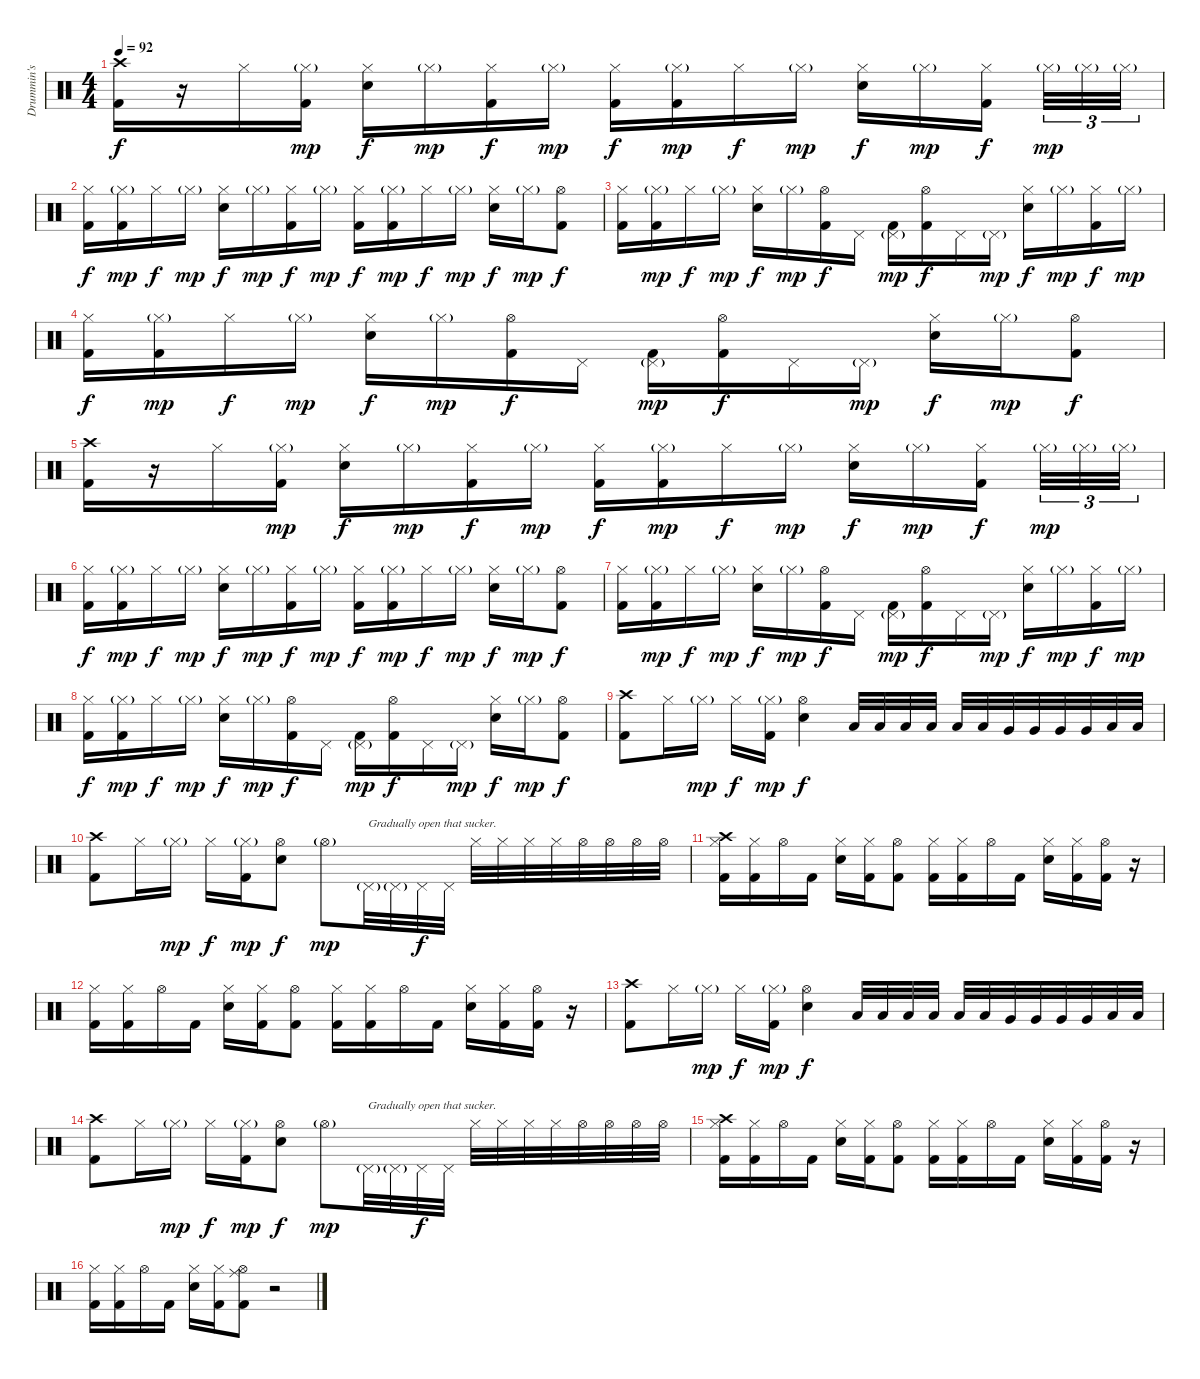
\track ("Drummin's" "Drummin's") {instrument percussion}
\staff {score}
\articulation defaults
\ts (4 4)
\tempo 92
\clef neutral
\ks c
("Crash high (hit)" "Kick (hit) 2").16{dy f} r.16 "Hi-Hat (closed)".16 ("Hi-Hat (closed)"{g} "Kick (hit) 2").16{dy mp} ("Hi-Hat (closed)" "Snare (hit) 2").16{dy f} "Hi-Hat (closed)"{g}.16{dy mp} ("Hi-Hat (closed)" "Kick (hit) 2").16{dy f} "Hi-Hat (closed)"{g}.16{dy mp} ("Hi-Hat (closed)" "Kick (hit) 2").16{dy f} ("Hi-Hat (closed)"{g} "Kick (hit) 2").16{dy mp} "Hi-Hat (closed)".16{dy f} "Hi-Hat (closed)"{g}.16{dy mp} ("Hi-Hat (closed)" "Snare (hit) 2").16{dy f} "Hi-Hat (closed)"{g}.16{dy mp} ("Hi-Hat (closed)" "Kick (hit) 2").16{dy f} "Hi-Hat (closed)"{g}.32{tu (3 2) dy mp} "Hi-Hat (closed)"{g}.32{tu (3 2)} "Hi-Hat (closed)"{g}.32{tu (3 2)} |
("Hi-Hat (closed)" "Kick (hit) 2").16{dy f} ("Hi-Hat (closed)"{g} "Kick (hit) 2").16{dy mp} "Hi-Hat (closed)".16{dy f} "Hi-Hat (closed)"{g}.16{dy mp} ("Hi-Hat (closed)" "Snare (hit) 2").16{dy f} "Hi-Hat (closed)"{g}.16{dy mp} ("Hi-Hat (closed)" "Kick (hit) 2").16{dy f} "Hi-Hat (closed)"{g}.16{dy mp} ("Hi-Hat (closed)" "Kick (hit) 2").16{dy f} ("Hi-Hat (closed)"{g} "Kick (hit) 2").16{dy mp} "Hi-Hat (closed)".16{dy f} "Hi-Hat (closed)"{g}.16{dy mp} ("Hi-Hat (closed)" "Snare (hit) 2").16{dy f} "Hi-Hat (closed)"{g}.16{dy mp} ("Hi-Hat (open)" "Kick (hit) 2").8{dy f} |
("Hi-Hat (closed)" "Kick (hit) 2").16 ("Hi-Hat (closed)"{g} "Kick (hit) 2").16{dy mp} "Hi-Hat (closed)".16{dy f} "Hi-Hat (closed)"{g}.16{dy mp} ("Hi-Hat (closed)" "Snare (hit) 2").16{dy f} "Hi-Hat (closed)"{g}.16{dy mp} ("Hi-Hat (open)" "Kick (hit) 2").16{dy f} "Pedal Hi-Hat (hit)".16 ("Pedal Hi-Hat (hit)"{g} "Kick (hit) 2").16{dy mp} ("Hi-Hat (open)" "Kick (hit) 2").16{dy f} "Pedal Hi-Hat (hit)".16 "Pedal Hi-Hat (hit)"{g}.16{dy mp} ("Hi-Hat (closed)" "Snare (hit) 2").16{dy f} "Hi-Hat (closed)"{g}.16{dy mp} ("Hi-Hat (closed)" "Kick (hit) 2").16{dy f} "Hi-Hat (closed)"{g}.16{dy mp} |
("Hi-Hat (closed)" "Kick (hit) 2").16{dy f} ("Hi-Hat (closed)"{g} "Kick (hit) 2").16{dy mp} "Hi-Hat (closed)".16{dy f} "Hi-Hat (closed)"{g}.16{dy mp} ("Hi-Hat (closed)" "Snare (hit) 2").16{dy f} "Hi-Hat (closed)"{g}.16{dy mp} ("Hi-Hat (open)" "Kick (hit) 2").16{dy f} "Pedal Hi-Hat (hit)".16 ("Pedal Hi-Hat (hit)"{g} "Kick (hit) 2").16{dy mp} ("Hi-Hat (open)" "Kick (hit) 2").16{dy f} "Pedal Hi-Hat (hit)".16 "Pedal Hi-Hat (hit)"{g}.16{dy mp} ("Hi-Hat (closed)" "Snare (hit) 2").16{dy f} "Hi-Hat (closed)"{g}.16{dy mp} ("Hi-Hat (open)" "Kick (hit) 2").8{dy f} |
("Crash high (hit)" "Kick (hit) 2").16 r.16 "Hi-Hat (closed)".16 ("Hi-Hat (closed)"{g} "Kick (hit) 2").16{dy mp} ("Hi-Hat (closed)" "Snare (hit) 2").16{dy f} "Hi-Hat (closed)"{g}.16{dy mp} ("Hi-Hat (closed)" "Kick (hit) 2").16{dy f} "Hi-Hat (closed)"{g}.16{dy mp} ("Hi-Hat (closed)" "Kick (hit) 2").16{dy f} ("Hi-Hat (closed)"{g} "Kick (hit) 2").16{dy mp} "Hi-Hat (closed)".16{dy f} "Hi-Hat (closed)"{g}.16{dy mp} ("Hi-Hat (closed)" "Snare (hit) 2").16{dy f} "Hi-Hat (closed)"{g}.16{dy mp} ("Hi-Hat (closed)" "Kick (hit) 2").16{dy f} "Hi-Hat (closed)"{g}.32{tu (3 2) dy mp} "Hi-Hat (closed)"{g}.32{tu (3 2)} "Hi-Hat (closed)"{g}.32{tu (3 2)} |
("Hi-Hat (closed)" "Kick (hit) 2").16{dy f} ("Hi-Hat (closed)"{g} "Kick (hit) 2").16{dy mp} "Hi-Hat (closed)".16{dy f} "Hi-Hat (closed)"{g}.16{dy mp} ("Hi-Hat (closed)" "Snare (hit) 2").16{dy f} "Hi-Hat (closed)"{g}.16{dy mp} ("Hi-Hat (closed)" "Kick (hit) 2").16{dy f} "Hi-Hat (closed)"{g}.16{dy mp} ("Hi-Hat (closed)" "Kick (hit) 2").16{dy f} ("Hi-Hat (closed)"{g} "Kick (hit) 2").16{dy mp} "Hi-Hat (closed)".16{dy f} "Hi-Hat (closed)"{g}.16{dy mp} ("Hi-Hat (closed)" "Snare (hit) 2").16{dy f} "Hi-Hat (closed)"{g}.16{dy mp} ("Hi-Hat (open)" "Kick (hit) 2").8{dy f} |
("Hi-Hat (closed)" "Kick (hit) 2").16 ("Hi-Hat (closed)"{g} "Kick (hit) 2").16{dy mp} "Hi-Hat (closed)".16{dy f} "Hi-Hat (closed)"{g}.16{dy mp} ("Hi-Hat (closed)" "Snare (hit) 2").16{dy f} "Hi-Hat (closed)"{g}.16{dy mp} ("Hi-Hat (open)" "Kick (hit) 2").16{dy f} "Pedal Hi-Hat (hit)".16 ("Pedal Hi-Hat (hit)"{g} "Kick (hit) 2").16{dy mp} ("Hi-Hat (open)" "Kick (hit) 2").16{dy f} "Pedal Hi-Hat (hit)".16 "Pedal Hi-Hat (hit)"{g}.16{dy mp} ("Hi-Hat (closed)" "Snare (hit) 2").16{dy f} "Hi-Hat (closed)"{g}.16{dy mp} ("Hi-Hat (closed)" "Kick (hit) 2").16{dy f} "Hi-Hat (closed)"{g}.16{dy mp} |
("Hi-Hat (closed)" "Kick (hit) 2").16{dy f} ("Hi-Hat (closed)"{g} "Kick (hit) 2").16{dy mp} "Hi-Hat (closed)".16{dy f} "Hi-Hat (closed)"{g}.16{dy mp} ("Hi-Hat (closed)" "Snare (hit) 2").16{dy f} "Hi-Hat (closed)"{g}.16{dy mp} ("Hi-Hat (open)" "Kick (hit) 2").16{dy f} "Pedal Hi-Hat (hit)".16 ("Pedal Hi-Hat (hit)"{g} "Kick (hit) 2").16{dy mp} ("Hi-Hat (open)" "Kick (hit) 2").16{dy f} "Pedal Hi-Hat (hit)".16 "Pedal Hi-Hat (hit)"{g}.16{dy mp} ("Hi-Hat (closed)" "Snare (hit) 2").16{dy f} "Hi-Hat (closed)"{g}.16{dy mp} ("Hi-Hat (open)" "Kick (hit) 2").8{dy f} |
("Crash high (hit)" "Kick (hit) 2").8 "Hi-Hat (closed)".16 "Hi-Hat (closed)"{g}.16{dy mp} "Hi-Hat (closed)".16{dy f} ("Hi-Hat (closed)"{g} "Kick (hit) 2").16{dy mp} ("Hi-Hat (open)" "Snare (hit) 2").4{dy f} "Low Tom (hit)".32 "Low Tom (hit)".32 "Low Tom (hit)".32 "Low Tom (hit)".32 "Low Tom (hit)".32 "Low Tom (hit)".32 "Very Low Tom (hit)".32 "Very Low Tom (hit)".32 "Very Low Tom (hit)".32 "Very Low Tom (hit)".32 "Low Floor Tom (hit)".32 "Low Floor Tom (hit)".32 |
("Crash high (hit)" "Kick (hit) 2").8 "Hi-Hat (closed)".16 "Hi-Hat (closed)"{g}.16{dy mp} "Hi-Hat (closed)".16{dy f} ("Hi-Hat (closed)"{g} "Kick (hit) 2").16{dy mp} ("Hi-Hat (open)" "Snare (hit) 2").8{dy f} "Hi-Hat (open)"{g}.8{dy mp} "Pedal Hi-Hat (hit)"{g}.32{txt "Gradually open that sucker."} "Pedal Hi-Hat (hit)"{g}.32 "Pedal Hi-Hat (hit)".32{dy f} "Pedal Hi-Hat (hit)".32 "Hi-Hat (closed)".32 "Hi-Hat (closed)".32 "Hi-Hat (closed)".32 "Hi-Hat (closed)".32 "Hi-Hat (open)".32 "Hi-Hat (open)".32 "Hi-Hat (open)".32 "Hi-Hat (open)".32 |
("Crash high (hit)" "Hi-Hat (closed)" "Kick (hit) 2").16 ("Hi-Hat (closed)" "Kick (hit) 2").16 "Hi-Hat (open)".16 "Kick (hit) 2".16 ("Hi-Hat (closed)" "Snare (hit) 2").16 ("Hi-Hat (closed)" "Kick (hit) 2").16 ("Hi-Hat (open)" "Kick (hit) 2").8 ("Hi-Hat (closed)" "Kick (hit) 2").16 ("Hi-Hat (closed)" "Kick (hit) 2").16 "Hi-Hat (open)".16 "Kick (hit) 2".16 ("Hi-Hat (closed)" "Snare (hit) 2").16 ("Hi-Hat (closed)" "Kick (hit) 2").16 ("Hi-Hat (open)" "Kick (hit) 2").16 r.16 |
("Hi-Hat (closed)" "Kick (hit) 2").16 ("Hi-Hat (closed)" "Kick (hit) 2").16 "Hi-Hat (open)".16 "Kick (hit) 2".16 ("Hi-Hat (closed)" "Snare (hit) 2").16 ("Hi-Hat (closed)" "Kick (hit) 2").16 ("Hi-Hat (open)" "Kick (hit) 2").8 ("Hi-Hat (closed)" "Kick (hit) 2").16 ("Hi-Hat (closed)" "Kick (hit) 2").16 "Hi-Hat (open)".16 "Kick (hit) 2".16 ("Hi-Hat (closed)" "Snare (hit) 2").16 ("Hi-Hat (closed)" "Kick (hit) 2").16 ("Hi-Hat (open)" "Kick (hit) 2").16 r.16 |
("Crash high (hit)" "Kick (hit) 2").8 "Hi-Hat (closed)".16 "Hi-Hat (closed)"{g}.16{dy mp} "Hi-Hat (closed)".16{dy f} ("Hi-Hat (closed)"{g} "Kick (hit) 2").16{dy mp} ("Hi-Hat (open)" "Snare (hit) 2").4{dy f} "Low Tom (hit)".32 "Low Tom (hit)".32 "Low Tom (hit)".32 "Low Tom (hit)".32 "Low Tom (hit)".32 "Low Tom (hit)".32 "Very Low Tom (hit)".32 "Very Low Tom (hit)".32 "Very Low Tom (hit)".32 "Very Low Tom (hit)".32 "Low Floor Tom (hit)".32 "Low Floor Tom (hit)".32 |
("Crash high (hit)" "Kick (hit) 2").8 "Hi-Hat (closed)".16 "Hi-Hat (closed)"{g}.16{dy mp} "Hi-Hat (closed)".16{dy f} ("Hi-Hat (closed)"{g} "Kick (hit) 2").16{dy mp} ("Hi-Hat (open)" "Snare (hit) 2").8{dy f} "Hi-Hat (open)"{g}.8{dy mp} "Pedal Hi-Hat (hit)"{g}.32{txt "Gradually open that sucker."} "Pedal Hi-Hat (hit)"{g}.32 "Pedal Hi-Hat (hit)".32{dy f} "Pedal Hi-Hat (hit)".32 "Hi-Hat (closed)".32 "Hi-Hat (closed)".32 "Hi-Hat (closed)".32 "Hi-Hat (closed)".32 "Hi-Hat (open)".32 "Hi-Hat (open)".32 "Hi-Hat (open)".32 "Hi-Hat (open)".32 |
("Crash high (hit)" "Hi-Hat (closed)" "Kick (hit) 2").16 ("Hi-Hat (closed)" "Kick (hit) 2").16 "Hi-Hat (open)".16 "Kick (hit) 2".16 ("Hi-Hat (closed)" "Snare (hit) 2").16 ("Hi-Hat (closed)" "Kick (hit) 2").16 ("Hi-Hat (open)" "Kick (hit) 2").8 ("Hi-Hat (closed)" "Kick (hit) 2").16 ("Hi-Hat (closed)" "Kick (hit) 2").16 "Hi-Hat (open)".16 "Kick (hit) 2".16 ("Hi-Hat (closed)" "Snare (hit) 2").16 ("Hi-Hat (closed)" "Kick (hit) 2").16 ("Hi-Hat (open)" "Kick (hit) 2").16 r.16 |
("Hi-Hat (closed)" "Kick (hit) 2").16 ("Hi-Hat (closed)" "Kick (hit) 2").16 "Hi-Hat (open)".16 "Kick (hit) 2".16 ("Hi-Hat (closed)" "Snare (hit) 2").16 ("Hi-Hat (closed)" "Kick (hit) 2").16 ("Ride (middle)" "Hi-Hat (open)" "Kick (hit) 2").8 r.2
